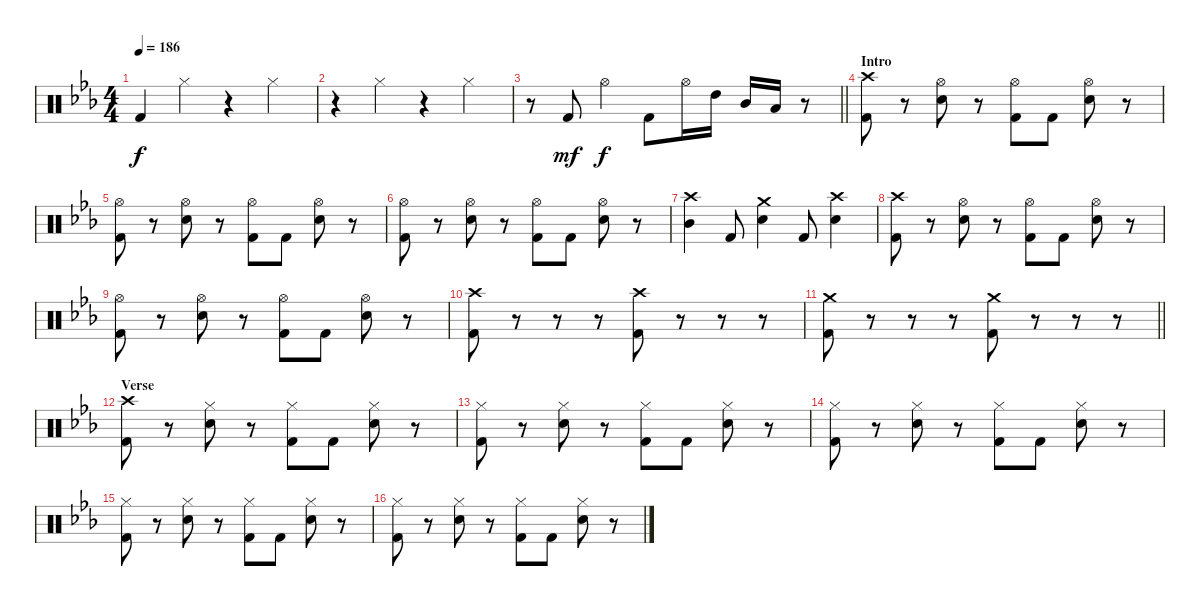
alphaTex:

\track "" {instrument percussion}
\staff {score}
\articulation defaults
\ts (4 4)
\tempo 186
\clef neutral
\ks eb "Kick (hit) 2".4{dy f} "Hi-Hat (closed)".4
r.4 "Hi-Hat (closed)".4 |
r.4 "Hi-Hat (closed)".4 r.4 "Hi-Hat (closed)".4 |
\barLineRight lightlight
r.8 "Kick (hit) 2".8{dy mf} "Hi-Hat (open)".4{dy f} "Kick (hit) 2".8 "Hi-Hat (open)".16 "High Tom (hit)".16 "Mid Tom (hit)".16 "Low Floor Tom (hit)".16 r.8 |
\section ("" "Intro")
("Crash high (hit)" "Kick (hit) 2").8 r.8 ("Hi-Hat (open)" "Snare (hit) 2").8 r.8 ("Hi-Hat (open)" "Kick (hit) 2").8 "Kick (hit) 2".8 ("Hi-Hat (open)" "Snare (hit) 2").8 r.8 |
("Hi-Hat (open)" "Kick (hit) 2").8 r.8 ("Hi-Hat (open)" "Snare (hit) 2").8 r.8 ("Hi-Hat (open)" "Kick (hit) 2").8 "Kick (hit) 2".8 ("Hi-Hat (open)" "Snare (hit) 2").8 r.8 |
("Hi-Hat (open)" "Kick (hit) 2").8 r.8 ("Hi-Hat (open)" "Snare (hit) 2").8 r.8 ("Hi-Hat (open)" "Kick (hit) 2").8 "Kick (hit) 2".8 ("Hi-Hat (open)" "Snare (hit) 2").8 r.8 |
("Crash high (hit)" "Mid Tom (hit)").4 "Kick (hit) 2".8 ("Crash medium (hit)" "Snare (hit) 2").4 "Kick (hit) 2".8 ("Crash high (hit)" "Snare (hit) 2").4 |
("Crash high (hit)" "Kick (hit) 2").8 r.8 ("Hi-Hat (open)" "Snare (hit) 2").8 r.8 ("Hi-Hat (open)" "Kick (hit) 2").8 "Kick (hit) 2".8 ("Hi-Hat (open)" "Snare (hit) 2").8 r.8 |
("Hi-Hat (open)" "Kick (hit) 2").8 r.8 ("Hi-Hat (open)" "Snare (hit) 2").8 r.8 ("Hi-Hat (open)" "Kick (hit) 2").8 "Kick (hit) 2".8 ("Hi-Hat (open)" "Snare (hit) 2").8 r.8 |
("Crash high (hit)" "Kick (hit) 2").8 r.8 r.8 r.8 ("Crash high (hit)" "Kick (hit) 2").8 r.8 r.8 r.8 |
\barLineRight lightlight
("Crash medium (hit)" "Kick (hit) 2").8 r.8 r.8 r.8 ("Crash medium (hit)" "Kick (hit) 2").8 r.8 r.8 r.8 |
\section ("" "Verse")
("Crash high (hit)" "Kick (hit) 2").8 r.8 ("Hi-Hat (closed)" "Snare (hit) 2").8 r.8 ("Hi-Hat (closed)" "Kick (hit) 2").8 "Kick (hit) 2".8 ("Hi-Hat (closed)" "Snare (hit) 2").8 r.8 |
("Hi-Hat (closed)" "Kick (hit) 2").8 r.8 ("Hi-Hat (closed)" "Snare (hit) 2").8 r.8 ("Hi-Hat (closed)" "Kick (hit) 2").8 "Kick (hit) 2".8 ("Hi-Hat (closed)" "Snare (hit) 2").8 r.8 |
("Hi-Hat (closed)" "Kick (hit) 2").8 r.8 ("Hi-Hat (closed)" "Snare (hit) 2").8 r.8 ("Hi-Hat (closed)" "Kick (hit) 2").8 "Kick (hit) 2".8 ("Hi-Hat (closed)" "Snare (hit) 2").8 r.8 |
("Hi-Hat (closed)" "Kick (hit) 2").8 r.8 ("Hi-Hat (closed)" "Snare (hit) 2").8 r.8 ("Hi-Hat (closed)" "Kick (hit) 2").8 "Kick (hit) 2".8 ("Hi-Hat (closed)" "Snare (hit) 2").8 r.8 |
("Hi-Hat (closed)" "Kick (hit) 2").8 r.8 ("Hi-Hat (closed)" "Snare (hit) 2").8 r.8 ("Hi-Hat (closed)" "Kick (hit) 2").8 "Kick (hit) 2".8 ("Hi-Hat (closed)" "Snare (hit) 2").8 r.8
